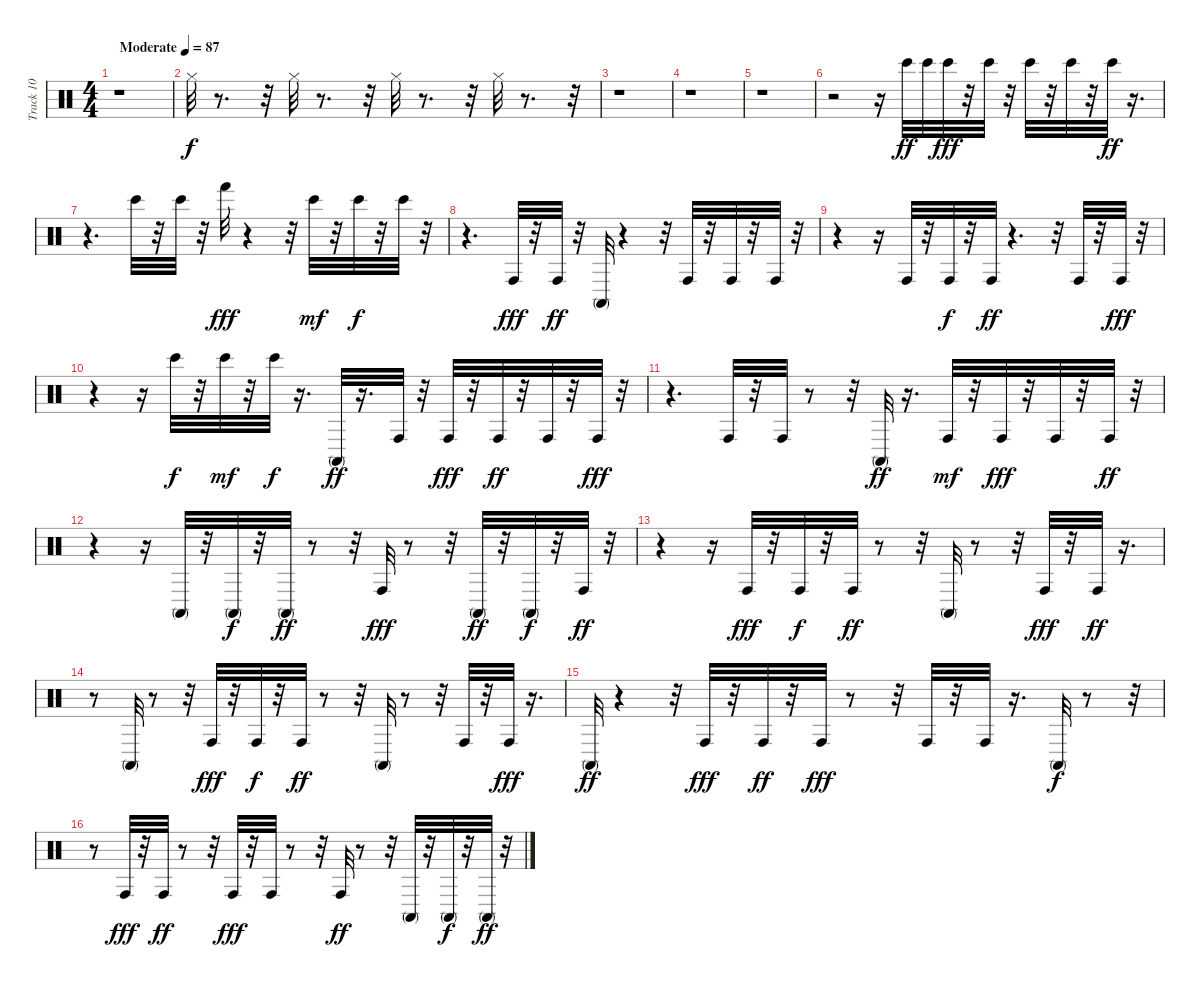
\track ("Track 10" "Track 10") {instrument percussion}
\staff {score}
\articulation defaults
\ts (4 4)
\tempo (87 "Moderate")
\clef neutral
\ks c
r.1{dy f} |
"Hi-Hat (closed)".32 r.8{d} r.32 "Hi-Hat (closed)".32 r.8{d} r.32 "Hi-Hat (closed)".32 r.8{d} r.32 "Hi-Hat (closed)".32 r.8{d} r.32 |
r.1 |
r.1 |
r.1 |
r.2 r.16 "Bongo High (hit)".32{dy ff} "Bongo High (hit)".32 "Bongo High (hit)".32{dy fff} r.32 "Bongo High (hit)".32 r.32 "Bongo High (hit)".32 r.32 "Bongo High (hit)".32 r.32 "Bongo High (hit)".32{dy ff} r.16{d} |
r.4{d} "Bongo High (hit)".32 r.32 "Bongo High (hit)".32 r.32 "Hand (hit)".32{dy fff} r.4 r.32 "Bongo High (hit)".32{dy mf} r.32 "Bongo High (hit)".32{dy f} r.32 "Bongo High (hit)".32 r.32 |
r.4{d} "Conga high (hit)".32{dy fff} r.32 "Conga high (hit)".32{dy ff} r.32 "Conga high (mute)".32 r.4 r.32 "Conga high (hit)".32 r.32 "Conga high (hit)".32 r.32 "Conga high (hit)".32 r.32 |
r.4 r.16 "Conga high (hit)".32 r.32 "Conga high (hit)".32{dy f} r.32 "Conga high (hit)".32{dy ff} r.4{d} r.32 "Conga high (hit)".32 r.32 "Conga high (hit)".32{dy fff} r.32 |
r.4 r.16 "Bongo High (hit)".32{dy f} r.32 "Bongo High (hit)".32{dy mf} r.32 "Bongo High (hit)".32{dy f} r.16{d} "Conga high (mute)".32{dy ff} r.16{d} "Conga high (hit)".32 r.32 "Conga high (hit)".32{dy fff} r.32 "Conga high (hit)".32{dy ff} r.32 "Conga high (hit)".32 r.32 "Conga high (hit)".32{dy fff} r.32 |
r.4{d} "Conga high (hit)".32 r.32 "Conga high (hit)".32 r.8 r.32 "Conga high (mute)".32{dy ff} r.16{d} "Conga high (hit)".32{dy mf} r.32 "Conga high (hit)".32{dy fff} r.32 "Conga high (hit)".32 r.32 "Conga high (hit)".32{dy ff} r.32 |
r.4 r.16 "Conga high (mute)".32 r.32 "Conga high (mute)".32{dy f} r.32 "Conga high (mute)".32{dy ff} r.8 r.32 "Conga high (hit)".32{dy fff} r.8 r.32 "Conga high (mute)".32{dy ff} r.32 "Conga high (mute)".32{dy f} r.32 "Conga high (hit)".32{dy ff} r.32 |
r.4 r.16 "Conga high (hit)".32{dy fff} r.32 "Conga high (hit)".32{dy f} r.32 "Conga high (hit)".32{dy ff} r.8 r.32 "Conga high (mute)".32 r.8 r.32 "Conga high (hit)".32{dy fff} r.32 "Conga high (hit)".32{dy ff} r.16{d} |
r.8 "Conga high (mute)".32 r.8 r.32 "Conga high (hit)".32{dy fff} r.32 "Conga high (hit)".32{dy f} r.32 "Conga high (hit)".32{dy ff} r.8 r.32 "Conga high (mute)".32 r.8 r.32 "Conga high (hit)".32 r.32 "Conga high (hit)".32{dy fff} r.16{d} |
"Conga high (mute)".32{dy ff} r.4 r.32 "Conga high (hit)".32{dy fff} r.32 "Conga high (hit)".32{dy ff} r.32 "Conga high (hit)".32{dy fff} r.8 r.32 "Conga high (hit)".32 r.32 "Conga high (hit)".32 r.16{d} "Conga high (mute)".32{dy f} r.8 r.32 |
r.8 "Conga high (hit)".32{dy fff} r.32 "Conga high (hit)".32{dy ff} r.8 r.32 "Conga high (hit)".32{dy fff} r.32 "Conga high (hit)".32 r.8 r.32 "Conga high (hit)".32{dy ff} r.8 r.32 "Conga high (mute)".32 r.32 "Conga high (mute)".32{dy f} r.32 "Conga high (mute)".32{dy ff} r.32
